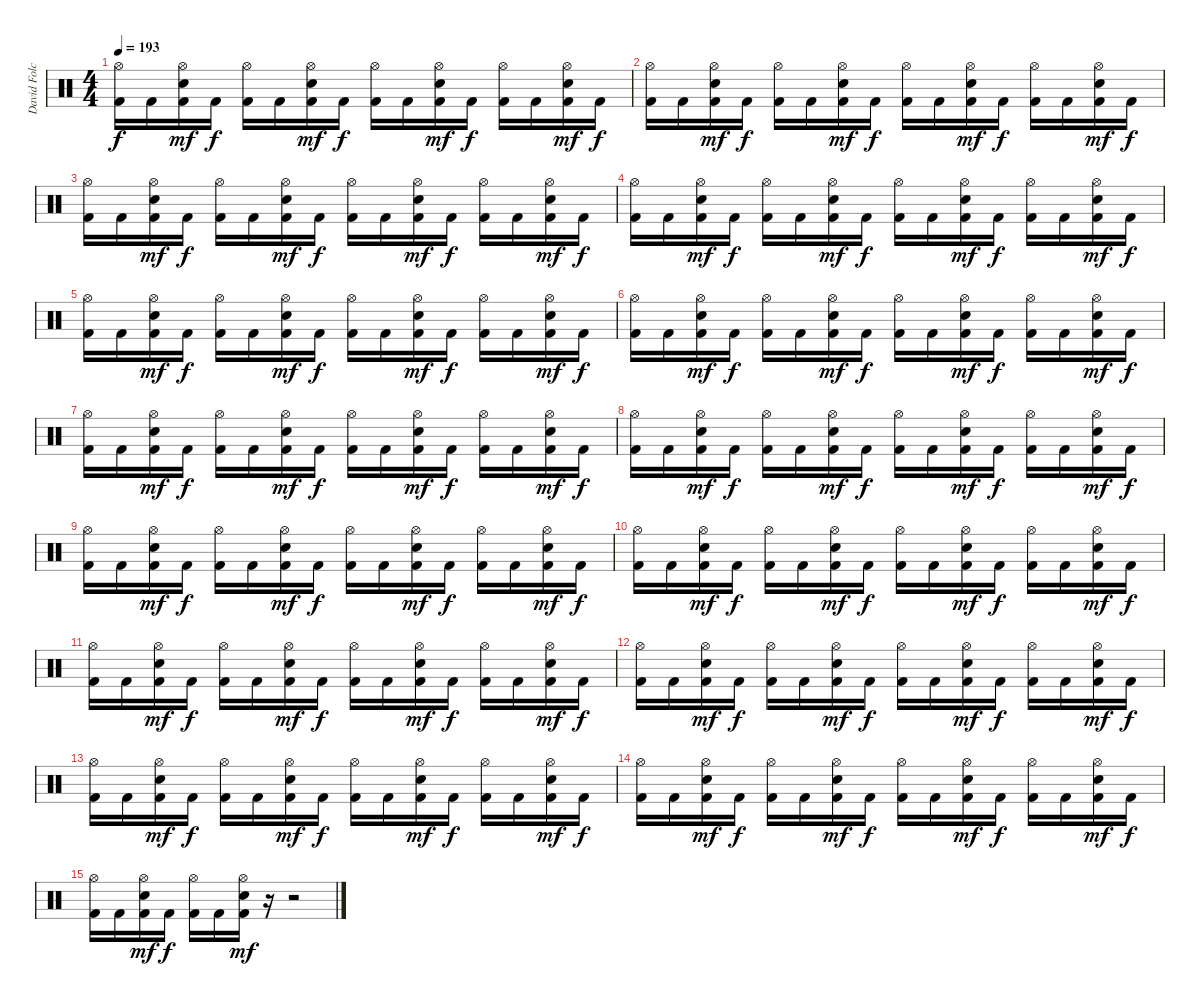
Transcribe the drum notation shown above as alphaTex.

\track ("David Folchitto (Drums)" "David Folc") {instrument percussion}
\staff {score}
\articulation defaults
\ts (4 4)
\tempo 193
\clef neutral
\ks c
("Hi-Hat (open)" "Kick (hit) 2").16{dy f} "Kick (hit) 2".16 ("Hi-Hat (open)" "Snare (hit) 2" "Kick (hit) 2").16{dy mf} "Kick (hit) 2".16{dy f} ("Hi-Hat (open)" "Kick (hit) 2").16 "Kick (hit) 2".16 ("Hi-Hat (open)" "Snare (hit) 2" "Kick (hit) 2").16{dy mf} "Kick (hit) 2".16{dy f} ("Hi-Hat (open)" "Kick (hit) 2").16 "Kick (hit) 2".16 ("Hi-Hat (open)" "Snare (hit) 2" "Kick (hit) 2").16{dy mf} "Kick (hit) 2".16{dy f} ("Hi-Hat (open)" "Kick (hit) 2").16 "Kick (hit) 2".16 ("Hi-Hat (open)" "Snare (hit) 2" "Kick (hit) 2").16{dy mf} "Kick (hit) 2".16{dy f} |
("Hi-Hat (open)" "Kick (hit) 2").16 "Kick (hit) 2".16 ("Hi-Hat (open)" "Snare (hit) 2" "Kick (hit) 2").16{dy mf} "Kick (hit) 2".16{dy f} ("Hi-Hat (open)" "Kick (hit) 2").16 "Kick (hit) 2".16 ("Hi-Hat (open)" "Snare (hit) 2" "Kick (hit) 2").16{dy mf} "Kick (hit) 2".16{dy f} ("Hi-Hat (open)" "Kick (hit) 2").16 "Kick (hit) 2".16 ("Hi-Hat (open)" "Snare (hit) 2" "Kick (hit) 2").16{dy mf} "Kick (hit) 2".16{dy f} ("Hi-Hat (open)" "Kick (hit) 2").16 "Kick (hit) 2".16 ("Hi-Hat (open)" "Snare (hit) 2" "Kick (hit) 2").16{dy mf} "Kick (hit) 2".16{dy f} |
("Hi-Hat (open)" "Kick (hit) 2").16 "Kick (hit) 2".16 ("Hi-Hat (open)" "Snare (hit) 2" "Kick (hit) 2").16{dy mf} "Kick (hit) 2".16{dy f} ("Hi-Hat (open)" "Kick (hit) 2").16 "Kick (hit) 2".16 ("Hi-Hat (open)" "Snare (hit) 2" "Kick (hit) 2").16{dy mf} "Kick (hit) 2".16{dy f} ("Hi-Hat (open)" "Kick (hit) 2").16 "Kick (hit) 2".16 ("Hi-Hat (open)" "Snare (hit) 2" "Kick (hit) 2").16{dy mf} "Kick (hit) 2".16{dy f} ("Hi-Hat (open)" "Kick (hit) 2").16 "Kick (hit) 2".16 ("Hi-Hat (open)" "Snare (hit) 2" "Kick (hit) 2").16{dy mf} "Kick (hit) 2".16{dy f} |
("Hi-Hat (open)" "Kick (hit) 2").16 "Kick (hit) 2".16 ("Hi-Hat (open)" "Snare (hit) 2" "Kick (hit) 2").16{dy mf} "Kick (hit) 2".16{dy f} ("Hi-Hat (open)" "Kick (hit) 2").16 "Kick (hit) 2".16 ("Hi-Hat (open)" "Snare (hit) 2" "Kick (hit) 2").16{dy mf} "Kick (hit) 2".16{dy f} ("Hi-Hat (open)" "Kick (hit) 2").16 "Kick (hit) 2".16 ("Hi-Hat (open)" "Snare (hit) 2" "Kick (hit) 2").16{dy mf} "Kick (hit) 2".16{dy f} ("Hi-Hat (open)" "Kick (hit) 2").16 "Kick (hit) 2".16 ("Hi-Hat (open)" "Snare (hit) 2" "Kick (hit) 2").16{dy mf} "Kick (hit) 2".16{dy f} |
("Hi-Hat (open)" "Kick (hit) 2").16 "Kick (hit) 2".16 ("Hi-Hat (open)" "Snare (hit) 2" "Kick (hit) 2").16{dy mf} "Kick (hit) 2".16{dy f} ("Hi-Hat (open)" "Kick (hit) 2").16 "Kick (hit) 2".16 ("Hi-Hat (open)" "Snare (hit) 2" "Kick (hit) 2").16{dy mf} "Kick (hit) 2".16{dy f} ("Hi-Hat (open)" "Kick (hit) 2").16 "Kick (hit) 2".16 ("Hi-Hat (open)" "Snare (hit) 2" "Kick (hit) 2").16{dy mf} "Kick (hit) 2".16{dy f} ("Hi-Hat (open)" "Kick (hit) 2").16 "Kick (hit) 2".16 ("Hi-Hat (open)" "Snare (hit) 2" "Kick (hit) 2").16{dy mf} "Kick (hit) 2".16{dy f} |
("Hi-Hat (open)" "Kick (hit) 2").16 "Kick (hit) 2".16 ("Hi-Hat (open)" "Snare (hit) 2" "Kick (hit) 2").16{dy mf} "Kick (hit) 2".16{dy f} ("Hi-Hat (open)" "Kick (hit) 2").16 "Kick (hit) 2".16 ("Hi-Hat (open)" "Snare (hit) 2" "Kick (hit) 2").16{dy mf} "Kick (hit) 2".16{dy f} ("Hi-Hat (open)" "Kick (hit) 2").16 "Kick (hit) 2".16 ("Hi-Hat (open)" "Snare (hit) 2" "Kick (hit) 2").16{dy mf} "Kick (hit) 2".16{dy f} ("Hi-Hat (open)" "Kick (hit) 2").16 "Kick (hit) 2".16 ("Hi-Hat (open)" "Snare (hit) 2" "Kick (hit) 2").16{dy mf} "Kick (hit) 2".16{dy f} |
("Hi-Hat (open)" "Kick (hit) 2").16 "Kick (hit) 2".16 ("Hi-Hat (open)" "Snare (hit) 2" "Kick (hit) 2").16{dy mf} "Kick (hit) 2".16{dy f} ("Hi-Hat (open)" "Kick (hit) 2").16 "Kick (hit) 2".16 ("Hi-Hat (open)" "Snare (hit) 2" "Kick (hit) 2").16{dy mf} "Kick (hit) 2".16{dy f} ("Hi-Hat (open)" "Kick (hit) 2").16 "Kick (hit) 2".16 ("Hi-Hat (open)" "Snare (hit) 2" "Kick (hit) 2").16{dy mf} "Kick (hit) 2".16{dy f} ("Hi-Hat (open)" "Kick (hit) 2").16 "Kick (hit) 2".16 ("Hi-Hat (open)" "Snare (hit) 2" "Kick (hit) 2").16{dy mf} "Kick (hit) 2".16{dy f} |
("Hi-Hat (open)" "Kick (hit) 2").16 "Kick (hit) 2".16 ("Hi-Hat (open)" "Snare (hit) 2" "Kick (hit) 2").16{dy mf} "Kick (hit) 2".16{dy f} ("Hi-Hat (open)" "Kick (hit) 2").16 "Kick (hit) 2".16 ("Hi-Hat (open)" "Snare (hit) 2" "Kick (hit) 2").16{dy mf} "Kick (hit) 2".16{dy f} ("Hi-Hat (open)" "Kick (hit) 2").16 "Kick (hit) 2".16 ("Hi-Hat (open)" "Snare (hit) 2" "Kick (hit) 2").16{dy mf} "Kick (hit) 2".16{dy f} ("Hi-Hat (open)" "Kick (hit) 2").16 "Kick (hit) 2".16 ("Hi-Hat (open)" "Snare (hit) 2" "Kick (hit) 2").16{dy mf} "Kick (hit) 2".16{dy f} |
("Hi-Hat (open)" "Kick (hit) 2").16 "Kick (hit) 2".16 ("Hi-Hat (open)" "Snare (hit) 2" "Kick (hit) 2").16{dy mf} "Kick (hit) 2".16{dy f} ("Hi-Hat (open)" "Kick (hit) 2").16 "Kick (hit) 2".16 ("Hi-Hat (open)" "Snare (hit) 2" "Kick (hit) 2").16{dy mf} "Kick (hit) 2".16{dy f} ("Hi-Hat (open)" "Kick (hit) 2").16 "Kick (hit) 2".16 ("Hi-Hat (open)" "Snare (hit) 2" "Kick (hit) 2").16{dy mf} "Kick (hit) 2".16{dy f} ("Hi-Hat (open)" "Kick (hit) 2").16 "Kick (hit) 2".16 ("Hi-Hat (open)" "Snare (hit) 2" "Kick (hit) 2").16{dy mf} "Kick (hit) 2".16{dy f} |
("Hi-Hat (open)" "Kick (hit) 2").16 "Kick (hit) 2".16 ("Hi-Hat (open)" "Snare (hit) 2" "Kick (hit) 2").16{dy mf} "Kick (hit) 2".16{dy f} ("Hi-Hat (open)" "Kick (hit) 2").16 "Kick (hit) 2".16 ("Hi-Hat (open)" "Snare (hit) 2" "Kick (hit) 2").16{dy mf} "Kick (hit) 2".16{dy f} ("Hi-Hat (open)" "Kick (hit) 2").16 "Kick (hit) 2".16 ("Hi-Hat (open)" "Snare (hit) 2" "Kick (hit) 2").16{dy mf} "Kick (hit) 2".16{dy f} ("Hi-Hat (open)" "Kick (hit) 2").16 "Kick (hit) 2".16 ("Hi-Hat (open)" "Snare (hit) 2" "Kick (hit) 2").16{dy mf} "Kick (hit) 2".16{dy f} |
("Hi-Hat (open)" "Kick (hit) 2").16 "Kick (hit) 2".16 ("Hi-Hat (open)" "Snare (hit) 2" "Kick (hit) 2").16{dy mf} "Kick (hit) 2".16{dy f} ("Hi-Hat (open)" "Kick (hit) 2").16 "Kick (hit) 2".16 ("Hi-Hat (open)" "Snare (hit) 2" "Kick (hit) 2").16{dy mf} "Kick (hit) 2".16{dy f} ("Hi-Hat (open)" "Kick (hit) 2").16 "Kick (hit) 2".16 ("Hi-Hat (open)" "Snare (hit) 2" "Kick (hit) 2").16{dy mf} "Kick (hit) 2".16{dy f} ("Hi-Hat (open)" "Kick (hit) 2").16 "Kick (hit) 2".16 ("Hi-Hat (open)" "Snare (hit) 2" "Kick (hit) 2").16{dy mf} "Kick (hit) 2".16{dy f} |
("Hi-Hat (open)" "Kick (hit) 2").16 "Kick (hit) 2".16 ("Hi-Hat (open)" "Snare (hit) 2" "Kick (hit) 2").16{dy mf} "Kick (hit) 2".16{dy f} ("Hi-Hat (open)" "Kick (hit) 2").16 "Kick (hit) 2".16 ("Hi-Hat (open)" "Snare (hit) 2" "Kick (hit) 2").16{dy mf} "Kick (hit) 2".16{dy f} ("Hi-Hat (open)" "Kick (hit) 2").16 "Kick (hit) 2".16 ("Hi-Hat (open)" "Snare (hit) 2" "Kick (hit) 2").16{dy mf} "Kick (hit) 2".16{dy f} ("Hi-Hat (open)" "Kick (hit) 2").16 "Kick (hit) 2".16 ("Hi-Hat (open)" "Snare (hit) 2" "Kick (hit) 2").16{dy mf} "Kick (hit) 2".16{dy f} |
("Hi-Hat (open)" "Kick (hit) 2").16 "Kick (hit) 2".16 ("Hi-Hat (open)" "Snare (hit) 2" "Kick (hit) 2").16{dy mf} "Kick (hit) 2".16{dy f} ("Hi-Hat (open)" "Kick (hit) 2").16 "Kick (hit) 2".16 ("Hi-Hat (open)" "Snare (hit) 2" "Kick (hit) 2").16{dy mf} "Kick (hit) 2".16{dy f} ("Hi-Hat (open)" "Kick (hit) 2").16 "Kick (hit) 2".16 ("Hi-Hat (open)" "Snare (hit) 2" "Kick (hit) 2").16{dy mf} "Kick (hit) 2".16{dy f} ("Hi-Hat (open)" "Kick (hit) 2").16 "Kick (hit) 2".16 ("Hi-Hat (open)" "Snare (hit) 2" "Kick (hit) 2").16{dy mf} "Kick (hit) 2".16{dy f} |
("Hi-Hat (open)" "Kick (hit) 2").16 "Kick (hit) 2".16 ("Hi-Hat (open)" "Snare (hit) 2" "Kick (hit) 2").16{dy mf} "Kick (hit) 2".16{dy f} ("Hi-Hat (open)" "Kick (hit) 2").16 "Kick (hit) 2".16 ("Hi-Hat (open)" "Snare (hit) 2" "Kick (hit) 2").16{dy mf} "Kick (hit) 2".16{dy f} ("Hi-Hat (open)" "Kick (hit) 2").16 "Kick (hit) 2".16 ("Hi-Hat (open)" "Snare (hit) 2" "Kick (hit) 2").16{dy mf} "Kick (hit) 2".16{dy f} ("Hi-Hat (open)" "Kick (hit) 2").16 "Kick (hit) 2".16 ("Hi-Hat (open)" "Snare (hit) 2" "Kick (hit) 2").16{dy mf} "Kick (hit) 2".16{dy f} |
("Hi-Hat (open)" "Kick (hit) 2").16 "Kick (hit) 2".16 ("Hi-Hat (open)" "Snare (hit) 2" "Kick (hit) 2").16{dy mf} "Kick (hit) 2".16{dy f} ("Hi-Hat (open)" "Kick (hit) 2").16 "Kick (hit) 2".16 ("Hi-Hat (open)" "Snare (hit) 2" "Kick (hit) 2").16{dy mf} r.16 r.2
